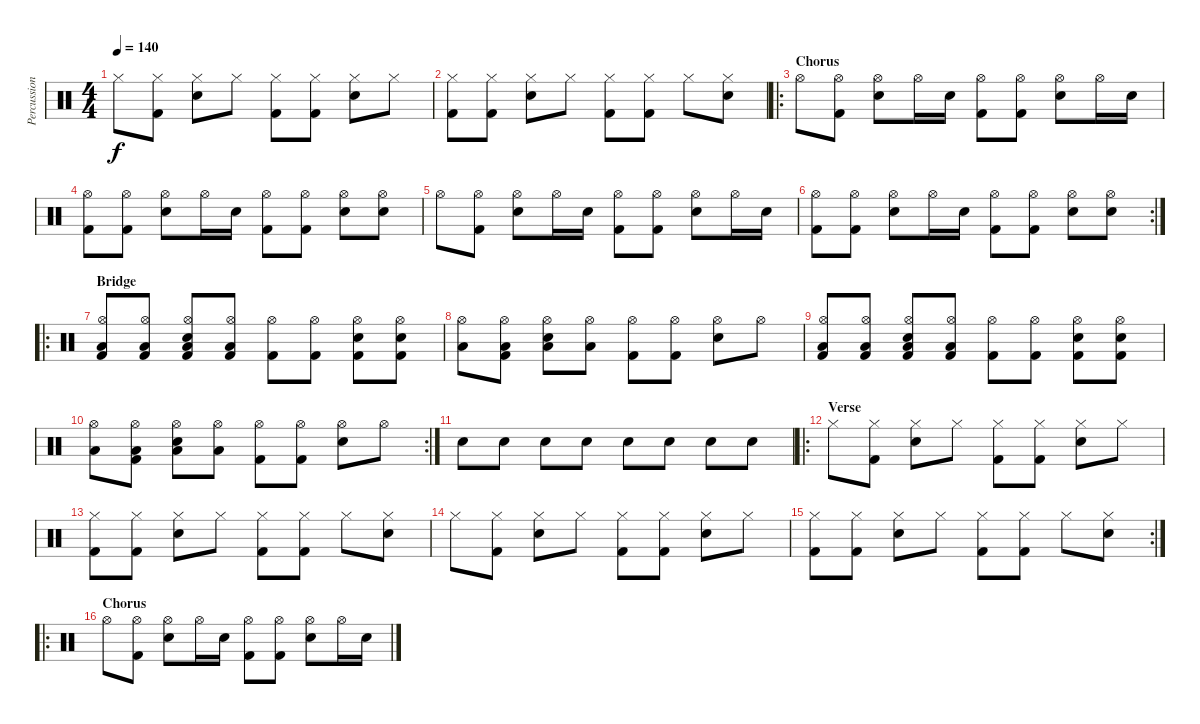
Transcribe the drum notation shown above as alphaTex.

\track ("Percussion" "Percussion") {instrument percussion}
\staff {score}
\articulation defaults
\ts (4 4)
\tempo 140
\clef neutral
\ks c "Hi-Hat (closed)".8{dy f}
("Hi-Hat (closed)" "Kick (hit) 2").8 ("Hi-Hat (closed)" "Snare (hit) 2").8 "Hi-Hat (closed)".8 ("Hi-Hat (closed)" "Kick (hit) 2").8 ("Hi-Hat (closed)" "Kick (hit) 2").8 ("Hi-Hat (closed)" "Snare (hit) 2").8 "Hi-Hat (closed)".8 |
("Hi-Hat (closed)" "Kick (hit) 2").8 ("Hi-Hat (closed)" "Kick (hit) 2").8 ("Hi-Hat (closed)" "Snare (hit) 2").8 "Hi-Hat (closed)".8 ("Hi-Hat (closed)" "Kick (hit) 2").8 ("Hi-Hat (closed)" "Kick (hit) 2").8 "Hi-Hat (closed)".8 ("Hi-Hat (closed)" "Snare (hit) 2").8 |
\ro
\section ("" "Chorus")
"Hi-Hat (open)".8 ("Hi-Hat (open)" "Kick (hit) 2").8 ("Hi-Hat (open)" "Snare (hit) 2").8 "Hi-Hat (open)".16 "Snare (hit) 2".16 ("Hi-Hat (open)" "Kick (hit) 2").8 ("Hi-Hat (open)" "Kick (hit) 2").8 ("Hi-Hat (open)" "Snare (hit) 2").8 "Hi-Hat (open)".16 "Snare (hit) 2".16 |
("Hi-Hat (open)" "Kick (hit) 2").8 ("Hi-Hat (open)" "Kick (hit) 2").8 ("Hi-Hat (open)" "Snare (hit) 2").8 "Hi-Hat (open)".16 "Snare (hit) 2".16 ("Hi-Hat (open)" "Kick (hit) 2").8 ("Hi-Hat (open)" "Kick (hit) 2").8 ("Hi-Hat (open)" "Snare (hit) 2").8 ("Hi-Hat (open)" "Snare (hit) 2").8 |
"Hi-Hat (open)".8 ("Hi-Hat (open)" "Kick (hit) 2").8 ("Hi-Hat (open)" "Snare (hit) 2").8 "Hi-Hat (open)".16 "Snare (hit) 2".16 ("Hi-Hat (open)" "Kick (hit) 2").8 ("Hi-Hat (open)" "Kick (hit) 2").8 ("Hi-Hat (open)" "Snare (hit) 2").8 "Hi-Hat (open)".16 "Snare (hit) 2".16 |
\rc 2
("Hi-Hat (open)" "Kick (hit) 2").8 ("Hi-Hat (open)" "Kick (hit) 2").8 ("Hi-Hat (open)" "Snare (hit) 2").8 "Hi-Hat (open)".16 "Snare (hit) 2".16 ("Hi-Hat (open)" "Kick (hit) 2").8 ("Hi-Hat (open)" "Kick (hit) 2").8 ("Hi-Hat (open)" "Snare (hit) 2").8 ("Hi-Hat (open)" "Snare (hit) 2").8 |
\ro
\section ("" "Bridge")
("Low Floor Tom (hit)" "Hi-Hat (open)" "Kick (hit) 2").8 ("Low Floor Tom (hit)" "Hi-Hat (open)" "Kick (hit) 2").8 ("Low Floor Tom (hit)" "Hi-Hat (open)" "Snare (hit) 2" "Kick (hit) 2").8 ("Low Floor Tom (hit)" "Hi-Hat (open)" "Kick (hit) 2").8 ("Hi-Hat (open)" "Kick (hit) 2").8 ("Hi-Hat (open)" "Kick (hit) 2").8 ("Hi-Hat (open)" "Snare (hit) 2" "Kick (hit) 2").8 ("Hi-Hat (open)" "Snare (hit) 2" "Kick (hit) 2").8 |
("Low Tom (hit)" "Hi-Hat (open)").8 ("Low Tom (hit)" "Hi-Hat (open)" "Kick (hit) 2").8 ("Low Tom (hit)" "Hi-Hat (open)" "Snare (hit) 2").8 ("Low Tom (hit)" "Hi-Hat (open)").8 ("Hi-Hat (open)" "Kick (hit) 2").8 ("Hi-Hat (open)" "Kick (hit) 2").8 ("Hi-Hat (open)" "Snare (hit) 2").8 "Hi-Hat (open)".8 |
("Low Floor Tom (hit)" "Hi-Hat (open)" "Kick (hit) 2").8 ("Low Floor Tom (hit)" "Hi-Hat (open)" "Kick (hit) 2").8 ("Low Floor Tom (hit)" "Hi-Hat (open)" "Snare (hit) 2" "Kick (hit) 2").8 ("Low Floor Tom (hit)" "Hi-Hat (open)" "Kick (hit) 2").8 ("Hi-Hat (open)" "Kick (hit) 2").8 ("Hi-Hat (open)" "Kick (hit) 2").8 ("Hi-Hat (open)" "Snare (hit) 2" "Kick (hit) 2").8 ("Hi-Hat (open)" "Snare (hit) 2" "Kick (hit) 2").8 |
\rc 2
("Low Tom (hit)" "Hi-Hat (open)").8 ("Low Tom (hit)" "Hi-Hat (open)" "Kick (hit) 2").8 ("Low Tom (hit)" "Hi-Hat (open)" "Snare (hit) 2").8 ("Low Tom (hit)" "Hi-Hat (open)").8 ("Hi-Hat (open)" "Kick (hit) 2").8 ("Hi-Hat (open)" "Kick (hit) 2").8 ("Hi-Hat (open)" "Snare (hit) 2").8 "Hi-Hat (open)".8 |
"Snare (hit) 2".8 "Snare (hit) 2".8 "Snare (hit) 2".8 "Snare (hit) 2".8 "Snare (hit) 2".8 "Snare (hit) 2".8 "Snare (hit) 2".8 "Snare (hit) 2".8 |
\ro
\section ("" "Verse")
"Hi-Hat (closed)".8 ("Hi-Hat (closed)" "Kick (hit) 2").8 ("Hi-Hat (closed)" "Snare (hit) 2").8 "Hi-Hat (closed)".8 ("Hi-Hat (closed)" "Kick (hit) 2").8 ("Hi-Hat (closed)" "Kick (hit) 2").8 ("Hi-Hat (closed)" "Snare (hit) 2").8 "Hi-Hat (closed)".8 |
("Hi-Hat (closed)" "Kick (hit) 2").8 ("Hi-Hat (closed)" "Kick (hit) 2").8 ("Hi-Hat (closed)" "Snare (hit) 2").8 "Hi-Hat (closed)".8 ("Hi-Hat (closed)" "Kick (hit) 2").8 ("Hi-Hat (closed)" "Kick (hit) 2").8 "Hi-Hat (closed)".8 ("Hi-Hat (closed)" "Snare (hit) 2").8 |
"Hi-Hat (closed)".8 ("Hi-Hat (closed)" "Kick (hit) 2").8 ("Hi-Hat (closed)" "Snare (hit) 2").8 "Hi-Hat (closed)".8 ("Hi-Hat (closed)" "Kick (hit) 2").8 ("Hi-Hat (closed)" "Kick (hit) 2").8 ("Hi-Hat (closed)" "Snare (hit) 2").8 "Hi-Hat (closed)".8 |
\rc 2
("Hi-Hat (closed)" "Kick (hit) 2").8 ("Hi-Hat (closed)" "Kick (hit) 2").8 ("Hi-Hat (closed)" "Snare (hit) 2").8 "Hi-Hat (closed)".8 ("Hi-Hat (closed)" "Kick (hit) 2").8 ("Hi-Hat (closed)" "Kick (hit) 2").8 "Hi-Hat (closed)".8 ("Hi-Hat (closed)" "Snare (hit) 2").8 |
\ro
\section ("" "Chorus")
"Hi-Hat (open)".8 ("Hi-Hat (open)" "Kick (hit) 2").8 ("Hi-Hat (open)" "Snare (hit) 2").8 "Hi-Hat (open)".16 "Snare (hit) 2".16 ("Hi-Hat (open)" "Kick (hit) 2").8 ("Hi-Hat (open)" "Kick (hit) 2").8 ("Hi-Hat (open)" "Snare (hit) 2").8 "Hi-Hat (open)".16 "Snare (hit) 2".16
